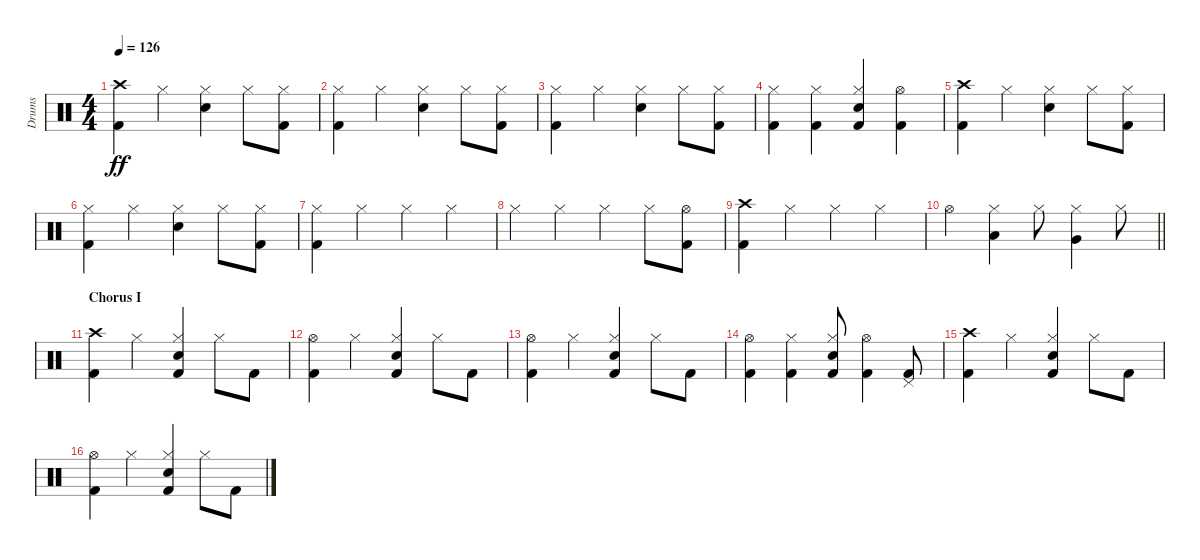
\track ("Drums" "Drums") {instrument percussion}
\staff {score}
\articulation defaults
\ts (4 4)
\tempo 126
\clef neutral
\ks c
("Crash high (hit)" "Kick (hit) 2").4{dy ff} "Hi-Hat (closed)".4 ("Hi-Hat (closed)" "Snare (hit) 2").4 "Hi-Hat (closed)".8 ("Hi-Hat (closed)" "Kick (hit) 2").8 |
("Hi-Hat (closed)" "Kick (hit) 2").4 "Hi-Hat (closed)".4 ("Hi-Hat (closed)" "Snare (hit) 2").4 "Hi-Hat (closed)".8 ("Hi-Hat (closed)" "Kick (hit) 2").8 |
("Hi-Hat (closed)" "Kick (hit) 2").4 "Hi-Hat (closed)".4 ("Hi-Hat (closed)" "Snare (hit) 2").4 "Hi-Hat (closed)".8 ("Hi-Hat (closed)" "Kick (hit) 2").8 |
("Hi-Hat (closed)" "Kick (hit) 2").4 ("Hi-Hat (closed)" "Kick (hit) 2").4 ("Hi-Hat (closed)" "Snare (hit) 2" "Kick (hit) 2").4 ("Hi-Hat (open)" "Kick (hit) 2").4 |
("Crash high (hit)" "Kick (hit) 2").4 "Hi-Hat (closed)".4 ("Hi-Hat (closed)" "Snare (hit) 2").4 "Hi-Hat (closed)".8 ("Hi-Hat (closed)" "Kick (hit) 2").8 |
("Hi-Hat (closed)" "Kick (hit) 2").4 "Hi-Hat (closed)".4 ("Hi-Hat (closed)" "Snare (hit) 2").4 "Hi-Hat (closed)".8 ("Hi-Hat (closed)" "Kick (hit) 2").8 |
("Hi-Hat (closed)" "Kick (hit) 2").4 "Hi-Hat (closed)".4 "Hi-Hat (closed)".4 "Hi-Hat (closed)".4 |
"Hi-Hat (closed)".4 "Hi-Hat (closed)".4 "Hi-Hat (closed)".4 "Hi-Hat (closed)".8 ("Hi-Hat (open)" "Kick (hit) 2").8 |
("Crash high (hit)" "Kick (hit) 2").4 "Hi-Hat (closed)".4 "Hi-Hat (closed)".4 "Hi-Hat (closed)".4 |
\barLineRight lightlight "Hi-Hat (open)".4
("Hi-Hat (closed)" "Low Tom (hit)").4 "Hi-Hat (closed)".8 ("Hi-Hat (closed)" "Very Low Tom (hit)").4 "Hi-Hat (closed)".8 |
\section ("" "Chorus I")
("Crash high (hit)" "Kick (hit) 2").4 "Hi-Hat (closed)".4 ("Hi-Hat (closed)" "Snare (hit) 2" "Kick (hit) 2").4 "Hi-Hat (closed)".8 "Kick (hit) 2".8 |
("Hi-Hat (open)" "Kick (hit) 2").4 "Hi-Hat (closed)".4 ("Hi-Hat (closed)" "Snare (hit) 2" "Kick (hit) 2").4 "Hi-Hat (closed)".8 "Kick (hit) 2".8 |
("Hi-Hat (open)" "Kick (hit) 2").4 "Hi-Hat (closed)".4 ("Hi-Hat (closed)" "Snare (hit) 2" "Kick (hit) 2").4 "Hi-Hat (closed)".8 "Kick (hit) 2".8 |
("Hi-Hat (open)" "Kick (hit) 2").4 ("Hi-Hat (closed)" "Kick (hit) 2").4 ("Hi-Hat (closed)" "Snare (hit) 2" "Kick (hit) 2").8 ("Hi-Hat (open)" "Kick (hit) 2").4 ("Pedal Hi-Hat (hit)" "Kick (hit) 2").8 |
("Crash high (hit)" "Kick (hit) 2").4 "Hi-Hat (closed)".4 ("Hi-Hat (closed)" "Snare (hit) 2" "Kick (hit) 2").4 "Hi-Hat (closed)".8 "Kick (hit) 2".8 |
("Hi-Hat (open)" "Kick (hit) 2").4 "Hi-Hat (closed)".4 ("Hi-Hat (closed)" "Snare (hit) 2" "Kick (hit) 2").4 "Hi-Hat (closed)".8 "Kick (hit) 2".8
